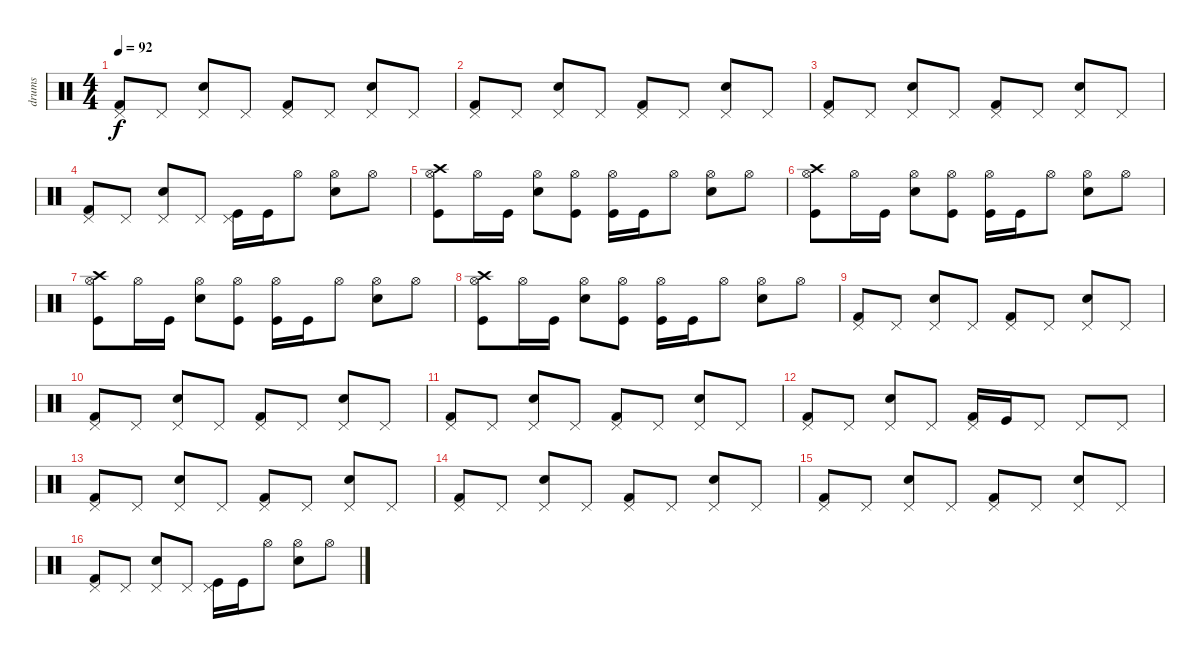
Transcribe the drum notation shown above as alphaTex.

\track ("drums" "drums") {instrument percussion}
\staff {score}
\articulation defaults
\ts (4 4)
\tempo 92
\clef neutral
\ks c
("Kick (hit) 2" "Pedal Hi-Hat (hit)").8{dy f} "Pedal Hi-Hat (hit)".8 ("Pedal Hi-Hat (hit)" "Snare (hit) 2").8 "Pedal Hi-Hat (hit)".8 ("Kick (hit) 2" "Pedal Hi-Hat (hit)").8 "Pedal Hi-Hat (hit)".8 ("Pedal Hi-Hat (hit)" "Snare (hit) 2").8 "Pedal Hi-Hat (hit)".8 |
("Kick (hit) 2" "Pedal Hi-Hat (hit)").8 "Pedal Hi-Hat (hit)".8 ("Pedal Hi-Hat (hit)" "Snare (hit) 2").8 "Pedal Hi-Hat (hit)".8 ("Kick (hit) 2" "Pedal Hi-Hat (hit)").8 "Pedal Hi-Hat (hit)".8 ("Pedal Hi-Hat (hit)" "Snare (hit) 2").8 "Pedal Hi-Hat (hit)".8 |
("Kick (hit) 2" "Pedal Hi-Hat (hit)").8 "Pedal Hi-Hat (hit)".8 ("Pedal Hi-Hat (hit)" "Snare (hit) 2").8 "Pedal Hi-Hat (hit)".8 ("Kick (hit) 2" "Pedal Hi-Hat (hit)").8 "Pedal Hi-Hat (hit)".8 ("Pedal Hi-Hat (hit)" "Snare (hit) 2").8 "Pedal Hi-Hat (hit)".8 |
("Kick (hit) 2" "Pedal Hi-Hat (hit)").8 "Pedal Hi-Hat (hit)".8 ("Pedal Hi-Hat (hit)" "Snare (hit) 2").8 "Pedal Hi-Hat (hit)".8 ("Kick (hit)" "Pedal Hi-Hat (hit)").16 "Kick (hit)".16 "Hi-Hat (open)".8 ("Hi-Hat (open)" "Electric Snare (hit)").8 "Hi-Hat (open)".8 |
("Kick (hit)" "Hi-Hat (open)" "Crash high (hit)").8 "Hi-Hat (open)".16 "Kick (hit)".16 ("Hi-Hat (open)" "Electric Snare (hit)").8 ("Kick (hit)" "Hi-Hat (open)").8 ("Kick (hit)" "Hi-Hat (open)").16 "Kick (hit)".16 "Hi-Hat (open)".8 ("Hi-Hat (open)" "Electric Snare (hit)").8 "Hi-Hat (open)".8 |
("Kick (hit)" "Hi-Hat (open)" "Crash high (hit)").8 "Hi-Hat (open)".16 "Kick (hit)".16 ("Hi-Hat (open)" "Electric Snare (hit)").8 ("Kick (hit)" "Hi-Hat (open)").8 ("Kick (hit)" "Hi-Hat (open)").16 "Kick (hit)".16 "Hi-Hat (open)".8 ("Hi-Hat (open)" "Electric Snare (hit)").8 "Hi-Hat (open)".8 |
("Kick (hit)" "Hi-Hat (open)" "Crash high (hit)").8 "Hi-Hat (open)".16 "Kick (hit)".16 ("Hi-Hat (open)" "Electric Snare (hit)").8 ("Kick (hit)" "Hi-Hat (open)").8 ("Kick (hit)" "Hi-Hat (open)").16 "Kick (hit)".16 "Hi-Hat (open)".8 ("Hi-Hat (open)" "Electric Snare (hit)").8 "Hi-Hat (open)".8 |
("Kick (hit)" "Hi-Hat (open)" "Crash high (hit)").8 "Hi-Hat (open)".16 "Kick (hit)".16 ("Hi-Hat (open)" "Electric Snare (hit)").8 ("Kick (hit)" "Hi-Hat (open)").8 ("Kick (hit)" "Hi-Hat (open)").16 "Kick (hit)".16 "Hi-Hat (open)".8 ("Hi-Hat (open)" "Electric Snare (hit)").8 "Hi-Hat (open)".8 |
("Kick (hit) 2" "Pedal Hi-Hat (hit)").8 "Pedal Hi-Hat (hit)".8 ("Pedal Hi-Hat (hit)" "Snare (hit) 2").8 "Pedal Hi-Hat (hit)".8 ("Kick (hit) 2" "Pedal Hi-Hat (hit)").8 "Pedal Hi-Hat (hit)".8 ("Pedal Hi-Hat (hit)" "Snare (hit) 2").8 "Pedal Hi-Hat (hit)".8 |
("Kick (hit) 2" "Pedal Hi-Hat (hit)").8 "Pedal Hi-Hat (hit)".8 ("Pedal Hi-Hat (hit)" "Snare (hit) 2").8 "Pedal Hi-Hat (hit)".8 ("Kick (hit) 2" "Pedal Hi-Hat (hit)").8 "Pedal Hi-Hat (hit)".8 ("Pedal Hi-Hat (hit)" "Snare (hit) 2").8 "Pedal Hi-Hat (hit)".8 |
("Kick (hit) 2" "Pedal Hi-Hat (hit)").8 "Pedal Hi-Hat (hit)".8 ("Pedal Hi-Hat (hit)" "Snare (hit) 2").8 "Pedal Hi-Hat (hit)".8 ("Kick (hit) 2" "Pedal Hi-Hat (hit)").8 "Pedal Hi-Hat (hit)".8 ("Pedal Hi-Hat (hit)" "Snare (hit) 2").8 "Pedal Hi-Hat (hit)".8 |
("Kick (hit) 2" "Pedal Hi-Hat (hit)").8 "Pedal Hi-Hat (hit)".8 ("Pedal Hi-Hat (hit)" "Snare (hit) 2").8 "Pedal Hi-Hat (hit)".8 ("Kick (hit) 2" "Pedal Hi-Hat (hit)").16 "Kick (hit)".16 "Pedal Hi-Hat (hit)".8 "Pedal Hi-Hat (hit)".8 "Pedal Hi-Hat (hit)".8 |
("Kick (hit) 2" "Pedal Hi-Hat (hit)").8 "Pedal Hi-Hat (hit)".8 ("Pedal Hi-Hat (hit)" "Snare (hit) 2").8 "Pedal Hi-Hat (hit)".8 ("Kick (hit) 2" "Pedal Hi-Hat (hit)").8 "Pedal Hi-Hat (hit)".8 ("Pedal Hi-Hat (hit)" "Snare (hit) 2").8 "Pedal Hi-Hat (hit)".8 |
("Kick (hit) 2" "Pedal Hi-Hat (hit)").8 "Pedal Hi-Hat (hit)".8 ("Pedal Hi-Hat (hit)" "Snare (hit) 2").8 "Pedal Hi-Hat (hit)".8 ("Kick (hit) 2" "Pedal Hi-Hat (hit)").8 "Pedal Hi-Hat (hit)".8 ("Pedal Hi-Hat (hit)" "Snare (hit) 2").8 "Pedal Hi-Hat (hit)".8 |
("Kick (hit) 2" "Pedal Hi-Hat (hit)").8 "Pedal Hi-Hat (hit)".8 ("Pedal Hi-Hat (hit)" "Snare (hit) 2").8 "Pedal Hi-Hat (hit)".8 ("Kick (hit) 2" "Pedal Hi-Hat (hit)").8 "Pedal Hi-Hat (hit)".8 ("Pedal Hi-Hat (hit)" "Snare (hit) 2").8 "Pedal Hi-Hat (hit)".8 |
("Kick (hit) 2" "Pedal Hi-Hat (hit)").8 "Pedal Hi-Hat (hit)".8 ("Pedal Hi-Hat (hit)" "Snare (hit) 2").8 "Pedal Hi-Hat (hit)".8 ("Kick (hit)" "Pedal Hi-Hat (hit)").16 "Kick (hit)".16 "Hi-Hat (open)".8 ("Hi-Hat (open)" "Electric Snare (hit)").8 "Hi-Hat (open)".8
